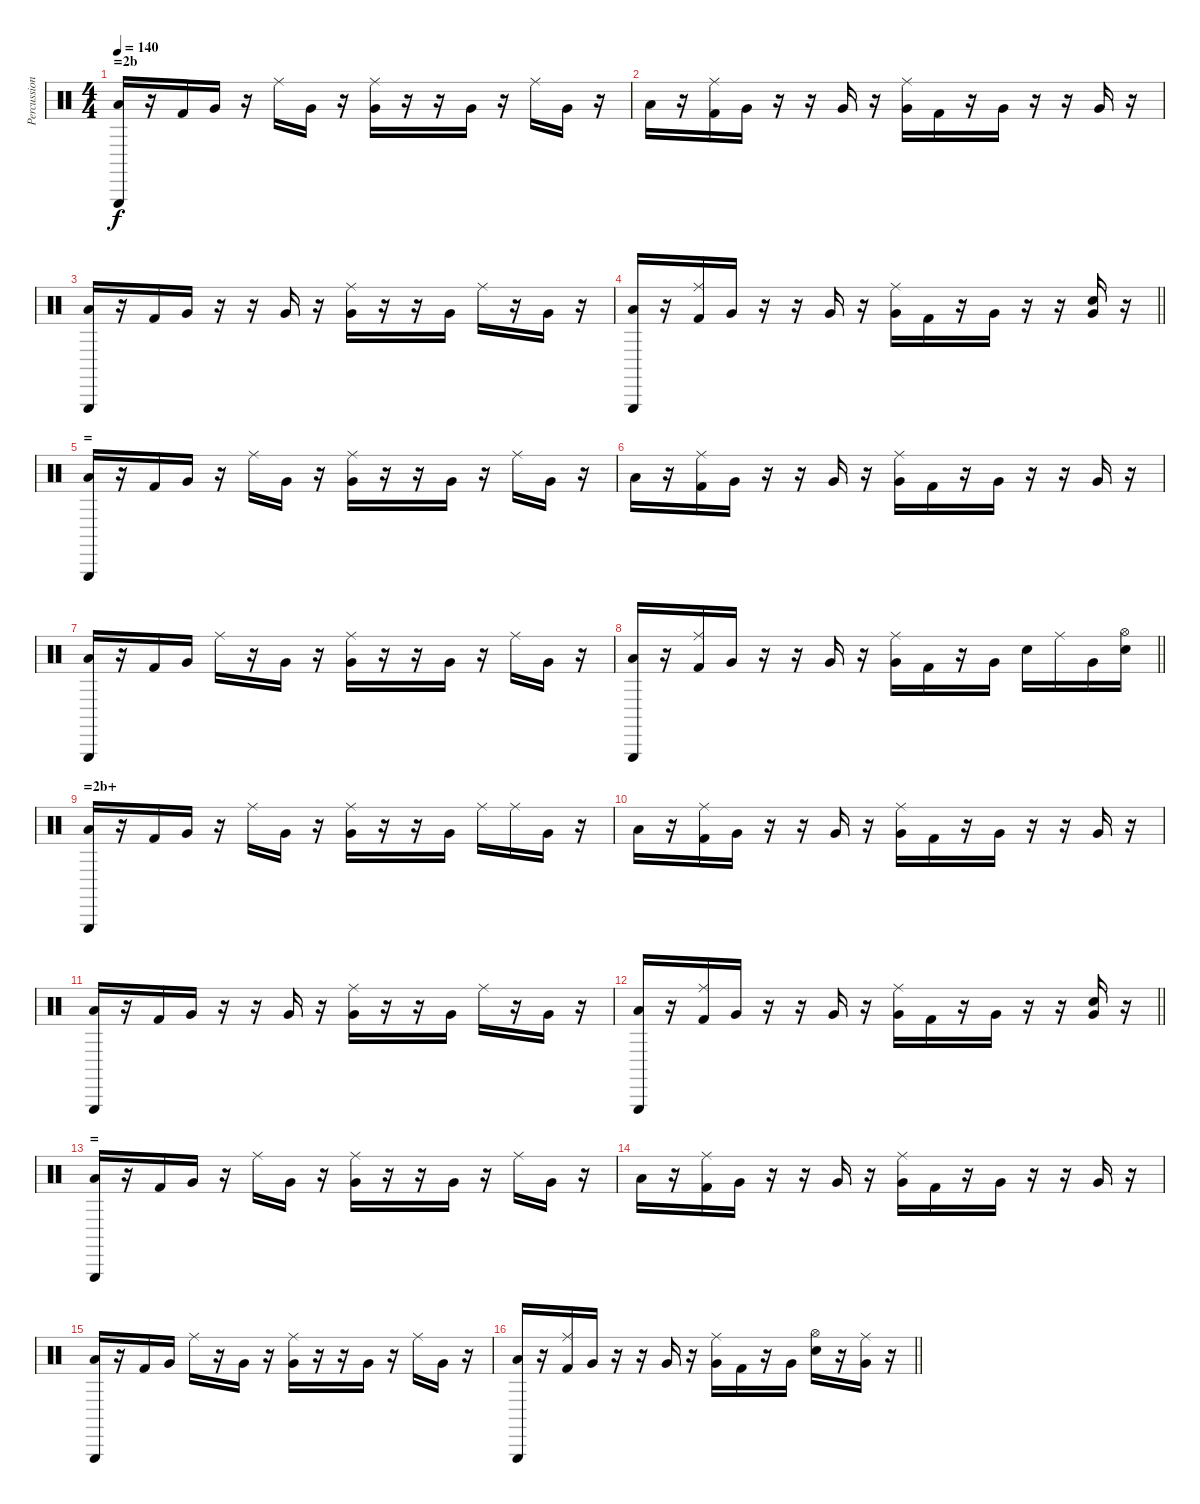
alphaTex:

\track ("Percussion" "Percussion") {instrument percussion}
\staff {score}
\articulation defaults
\ts (4 4)
\section ("" "=2b")
\tempo 140
\clef neutral
\ks c
("Low Floor Tom (hit)" "Triangle (hit)").16{dy f} r.16 "Kick (hit) 2".16 "Very Low Tom (hit)".16 r.16 "Ride (middle)".16 "Very Low Tom (hit)".16 r.16 ("Very Low Tom (hit)" "Ride (middle)").16 r.16 r.16 "Very Low Tom (hit)".16 r.16 "Ride (middle)".16 "Very Low Tom (hit)".16 r.16 |
"Low Floor Tom (hit)".16 r.16 ("Kick (hit) 2" "Ride (middle)").16 "Very Low Tom (hit)".16 r.16 r.16 "Very Low Tom (hit)".16 r.16 ("Very Low Tom (hit)" "Ride (middle)").16 "Kick (hit) 2".16 r.16 "Very Low Tom (hit)".16 r.16 r.16 "Very Low Tom (hit)".16 r.16 |
("Low Floor Tom (hit)" "Triangle (hit)").16 r.16 "Kick (hit) 2".16 "Very Low Tom (hit)".16 r.16 r.16 "Very Low Tom (hit)".16 r.16 ("Very Low Tom (hit)" "Ride (middle)").16 r.16 r.16 "Very Low Tom (hit)".16 "Ride (middle)".16 r.16 "Very Low Tom (hit)".16 r.16 |
\barLineRight lightlight
("Low Floor Tom (hit)" "Triangle (hit)").16 r.16 ("Kick (hit) 2" "Ride (middle)").16 "Very Low Tom (hit)".16 r.16 r.16 "Very Low Tom (hit)".16 r.16 ("Very Low Tom (hit)" "Ride (middle)").16 "Kick (hit) 2".16 r.16 "Very Low Tom (hit)".16 r.16 r.16 ("Very Low Tom (hit)" "Electric Snare (hit)").16 r.16 |
\section ("" "=")
("Low Floor Tom (hit)" "Triangle (hit)").16 r.16 "Kick (hit) 2".16 "Very Low Tom (hit)".16 r.16 "Ride (middle)".16 "Very Low Tom (hit)".16 r.16 ("Very Low Tom (hit)" "Ride (middle)").16 r.16 r.16 "Very Low Tom (hit)".16 r.16 "Ride (middle)".16 "Very Low Tom (hit)".16 r.16 |
"Low Floor Tom (hit)".16 r.16 ("Kick (hit) 2" "Ride (middle)").16 "Very Low Tom (hit)".16 r.16 r.16 "Very Low Tom (hit)".16 r.16 ("Very Low Tom (hit)" "Ride (middle)").16 "Kick (hit) 2".16 r.16 "Very Low Tom (hit)".16 r.16 r.16 "Very Low Tom (hit)".16 r.16 |
("Low Floor Tom (hit)" "Triangle (hit)").16 r.16 "Kick (hit) 2".16 "Very Low Tom (hit)".16 "Ride (middle)".16 r.16 "Very Low Tom (hit)".16 r.16 ("Very Low Tom (hit)" "Ride (middle)").16 r.16 r.16 "Very Low Tom (hit)".16 r.16 "Ride (middle)".16 "Very Low Tom (hit)".16 r.16 |
\barLineRight lightlight
("Low Floor Tom (hit)" "Triangle (hit)").16 r.16 ("Kick (hit) 2" "Ride (middle)").16 "Very Low Tom (hit)".16 r.16 r.16 "Very Low Tom (hit)".16 r.16 ("Very Low Tom (hit)" "Ride (middle)").16 "Kick (hit) 2".16 r.16 "Very Low Tom (hit)".16 "Electric Snare (hit)".16 "Ride (middle)".16 "Very Low Tom (hit)".16 ("Electric Snare (hit)" "Hi-Hat (open)").16 |
\section ("" "=2b+")
("Low Floor Tom (hit)" "Triangle (hit)").16 r.16 "Kick (hit) 2".16 "Very Low Tom (hit)".16 r.16 "Ride (middle)".16 "Very Low Tom (hit)".16 r.16 ("Very Low Tom (hit)" "Ride (middle)").16 r.16 r.16 "Very Low Tom (hit)".16 "Ride (middle)".16 "Ride (middle)".16 "Very Low Tom (hit)".16 r.16 |
"Low Floor Tom (hit)".16 r.16 ("Kick (hit) 2" "Ride (middle)").16 "Very Low Tom (hit)".16 r.16 r.16 "Very Low Tom (hit)".16 r.16 ("Very Low Tom (hit)" "Ride (middle)").16 "Kick (hit) 2".16 r.16 "Very Low Tom (hit)".16 r.16 r.16 "Very Low Tom (hit)".16 r.16 |
("Low Floor Tom (hit)" "Triangle (hit)").16 r.16 "Kick (hit) 2".16 "Very Low Tom (hit)".16 r.16 r.16 "Very Low Tom (hit)".16 r.16 ("Very Low Tom (hit)" "Ride (middle)").16 r.16 r.16 "Very Low Tom (hit)".16 "Ride (middle)".16 r.16 "Very Low Tom (hit)".16 r.16 |
\barLineRight lightlight
("Low Floor Tom (hit)" "Triangle (hit)").16 r.16 ("Kick (hit) 2" "Ride (middle)").16 "Very Low Tom (hit)".16 r.16 r.16 "Very Low Tom (hit)".16 r.16 ("Very Low Tom (hit)" "Ride (middle)").16 "Kick (hit) 2".16 r.16 "Very Low Tom (hit)".16 r.16 r.16 ("Very Low Tom (hit)" "Electric Snare (hit)").16 r.16 |
\section ("" "=")
("Low Floor Tom (hit)" "Triangle (hit)").16 r.16 "Kick (hit) 2".16 "Very Low Tom (hit)".16 r.16 "Ride (middle)".16 "Very Low Tom (hit)".16 r.16 ("Very Low Tom (hit)" "Ride (middle)").16 r.16 r.16 "Very Low Tom (hit)".16 r.16 "Ride (middle)".16 "Very Low Tom (hit)".16 r.16 |
"Low Floor Tom (hit)".16 r.16 ("Kick (hit) 2" "Ride (middle)").16 "Very Low Tom (hit)".16 r.16 r.16 "Very Low Tom (hit)".16 r.16 ("Very Low Tom (hit)" "Ride (middle)").16 "Kick (hit) 2".16 r.16 "Very Low Tom (hit)".16 r.16 r.16 "Very Low Tom (hit)".16 r.16 |
("Low Floor Tom (hit)" "Triangle (hit)").16 r.16 "Kick (hit) 2".16 "Very Low Tom (hit)".16 "Ride (middle)".16 r.16 "Very Low Tom (hit)".16 r.16 ("Very Low Tom (hit)" "Ride (middle)").16 r.16 r.16 "Very Low Tom (hit)".16 r.16 "Ride (middle)".16 "Very Low Tom (hit)".16 r.16 |
\barLineRight lightlight
("Low Floor Tom (hit)" "Triangle (hit)").16 r.16 ("Kick (hit) 2" "Ride (middle)").16 "Very Low Tom (hit)".16 r.16 r.16 "Very Low Tom (hit)".16 r.16 ("Very Low Tom (hit)" "Ride (middle)").16 "Kick (hit) 2".16 r.16 "Very Low Tom (hit)".16 ("Electric Snare (hit)" "Hi-Hat (open)").16 r.16 ("Very Low Tom (hit)" "Ride (middle)").16 r.16
